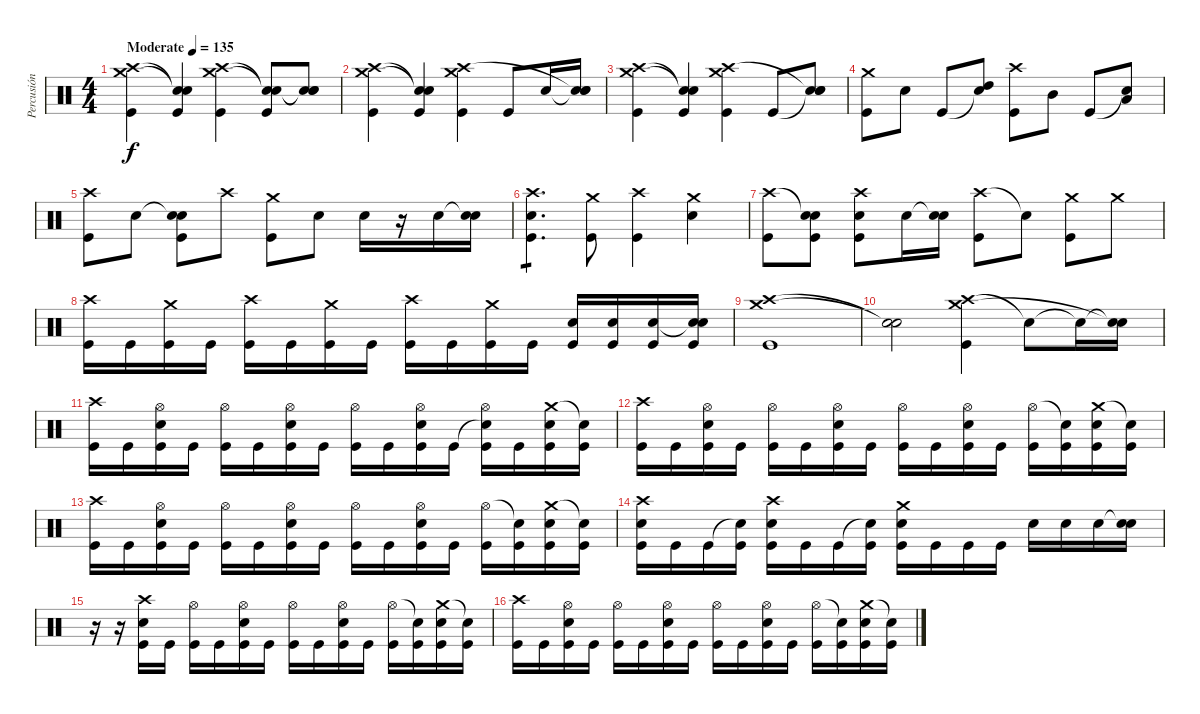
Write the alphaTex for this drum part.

\track ("Percusión" "Percusión") {instrument percussion}
\staff {score}
\articulation defaults
\ts (4 4)
\tempo (135 "Moderate")
\clef neutral
\ks c
("Crash high (hit)" "Crash medium (hit)" "Kick (hit)").4{dy f} ("Snare (hit)"{t} "Snare (hit)"{t} "Kick (hit)").4 ("Crash medium (hit)" "Crash high (hit)" "Kick (hit)").4 ("Snare (hit)"{t} "Snare (hit)"{t} "Kick (hit)").8 ("Snare (hit)"{t} "Snare (hit)"{t} "Snare (hit) 2").8 |
("Crash high (hit)" "Crash medium (hit)" "Kick (hit)").4 ("Snare (hit)"{t} "Snare (hit)"{t} "Kick (hit)").4 ("Crash medium (hit)" "Crash high (hit)" "Kick (hit)").4 "Kick (hit)".8 "Snare (hit) 2".16 ("Snare (hit)"{t} "Snare (hit)"{t} "Snare (hit) 2").16 |
("Crash high (hit)" "Crash medium (hit)" "Kick (hit)").4 ("Snare (hit)"{t} "Snare (hit)"{t} "Kick (hit)").4 ("Crash medium (hit)" "Crash high (hit)" "Kick (hit)").4 "Kick (hit)".8 ("Snare (hit)"{t} "Snare (hit)"{t} "Snare (hit) 2").8 |
("Crash medium (hit)" "Kick (hit)").8 "Snare (hit) 2".8 "Kick (hit)".8 ("Snare (hit)"{t} "High Tom (hit)").8 ("Crash high (hit)" "Kick (hit)").8 "Mid Tom (hit)".8 "Kick (hit)".8 ("Snare (hit)"{t} "Low Tom (hit)").8 |
("Crash high (hit)" "Kick (hit)").8 "Snare (hit) 2".8 ("Snare (hit)"{t} "Snare (hit) 2" "Kick (hit)").8 "Crash high (hit)".8 ("Crash medium (hit)" "Kick (hit)").8 "Snare (hit) 2".8 "Snare (hit) 2".16 r.16 "Snare (hit) 2".16 ("Snare (hit)"{t} "Snare (hit) 2").16 |
("Crash high (hit)" "Snare (hit) 2" "Kick (hit)").4{d tp 1} ("Crash medium (hit)" "Kick (hit)").8 ("Crash high (hit)" "Kick (hit)").4 ("Crash medium (hit)" "Snare (hit) 2").4 |
("Crash high (hit)" "Kick (hit)").8 ("Snare (hit)"{t} "Snare (hit) 2" "Kick (hit)").8 ("Crash high (hit)" "Snare (hit) 2" "Kick (hit)").8 "Snare (hit) 2".16 ("Snare (hit)"{t} "Snare (hit) 2").16 ("Crash high (hit)" "Kick (hit)").8 "Snare (hit)"{t}.8 ("Crash medium (hit)" "Kick (hit)").8 "Crash medium (hit)".8 |
("Crash high (hit)" "Kick (hit)").16 "Kick (hit)".16 ("Crash medium (hit)" "Kick (hit)").16 "Kick (hit)".16 ("Crash high (hit)" "Kick (hit)").16 "Kick (hit)".16 ("Crash medium (hit)" "Kick (hit)").16 "Kick (hit)".16 ("Crash high (hit)" "Kick (hit)").16 "Kick (hit)".16 ("Crash medium (hit)" "Kick (hit)").16 "Kick (hit)".16 ("Snare (hit) 2" "Kick (hit)").16 ("Snare (hit) 2" "Kick (hit)").16 ("Snare (hit) 2" "Kick (hit)").16 ("Snare (hit)"{t} "Snare (hit) 2" "Kick (hit)").16 |
("Crash high (hit)" "Crash medium (hit)" "Kick (hit)").1 |
("Snare (hit)"{t} "Snare (hit)"{t}).2 ("Crash high (hit)" "Crash medium (hit)" "Kick (hit)").4 "Snare (hit)"{t}.8 "Snare (hit)"{t}.16 ("Snare (hit)"{t} "Snare (hit)"{t}).16 |
("Crash high (hit)" "Kick (hit)").16 "Kick (hit)".16 ("Hi-Hat (open)" "Snare (hit) 2" "Kick (hit)").16 "Kick (hit)".16 ("Hi-Hat (open)" "Kick (hit)").16 "Kick (hit)".16 ("Hi-Hat (open)" "Snare (hit) 2" "Kick (hit)").16 "Kick (hit)".16 ("Hi-Hat (open)" "Kick (hit)").16 "Kick (hit)".16 ("Hi-Hat (open)" "Snare (hit) 2" "Kick (hit)").16 "Kick (hit)".16 ("Snare (hit)"{t} "Hi-Hat (open)" "Kick (hit)").16 "Kick (hit)".16 ("Crash medium (hit)" "Snare (hit) 2" "Kick (hit)").16 ("Snare (hit)"{t} "Kick (hit)").16 |
("Crash high (hit)" "Kick (hit)").16 "Kick (hit)".16 ("Hi-Hat (open)" "Snare (hit) 2" "Kick (hit)").16 "Kick (hit)".16 ("Hi-Hat (open)" "Kick (hit)").16 "Kick (hit)".16 ("Hi-Hat (open)" "Snare (hit) 2" "Kick (hit)").16 "Kick (hit)".16 ("Hi-Hat (open)" "Kick (hit)").16 "Kick (hit)".16 ("Hi-Hat (open)" "Snare (hit) 2" "Kick (hit)").16 "Kick (hit)".16 ("Hi-Hat (open)" "Kick (hit)").16 ("Snare (hit)"{t} "Kick (hit)").16 ("Crash medium (hit)" "Snare (hit) 2" "Kick (hit)").16 ("Snare (hit)"{t} "Kick (hit)").16 |
("Crash high (hit)" "Kick (hit)").16 "Kick (hit)".16 ("Hi-Hat (open)" "Snare (hit) 2" "Kick (hit)").16 "Kick (hit)".16 ("Hi-Hat (open)" "Kick (hit)").16 "Kick (hit)".16 ("Hi-Hat (open)" "Snare (hit) 2" "Kick (hit)").16 "Kick (hit)".16 ("Hi-Hat (open)" "Kick (hit)").16 "Kick (hit)".16 ("Hi-Hat (open)" "Snare (hit) 2" "Kick (hit)").16 "Kick (hit)".16 ("Hi-Hat (open)" "Kick (hit)").16 ("Snare (hit)"{t} "Kick (hit)").16 ("Crash medium (hit)" "Snare (hit) 2" "Kick (hit)").16 ("Snare (hit)"{t} "Kick (hit)").16 |
("Crash high (hit)" "Snare (hit) 2" "Kick (hit)").16 "Kick (hit)".16 "Kick (hit)".16 ("Snare (hit)"{t} "Kick (hit)").16 ("Crash high (hit)" "Snare (hit) 2" "Kick (hit)").16 "Kick (hit)".16 "Kick (hit)".16 ("Snare (hit)"{t} "Kick (hit)").16 ("Crash medium (hit)" "Snare (hit) 2" "Kick (hit)").16 "Kick (hit)".16 "Kick (hit)".16 "Kick (hit)".16 "Snare (hit) 2".16 "Snare (hit) 2".16 "Snare (hit) 2".16 ("Snare (hit)"{t} "Snare (hit) 2").16 |
r.16 r.16 ("Crash high (hit)" "Snare (hit) 2" "Kick (hit)").16 "Kick (hit)".16 ("Hi-Hat (open)" "Kick (hit)").16 "Kick (hit)".16 ("Hi-Hat (open)" "Snare (hit) 2" "Kick (hit)").16 "Kick (hit)".16 ("Hi-Hat (open)" "Kick (hit)").16 "Kick (hit)".16 ("Hi-Hat (open)" "Snare (hit) 2" "Kick (hit)").16 "Kick (hit)".16 ("Hi-Hat (open)" "Kick (hit)").16 ("Snare (hit)"{t} "Kick (hit)").16 ("Crash medium (hit)" "Snare (hit) 2" "Kick (hit)").16 ("Snare (hit)"{t} "Kick (hit)").16 |
("Crash high (hit)" "Kick (hit)").16 "Kick (hit)".16 ("Hi-Hat (open)" "Snare (hit) 2" "Kick (hit)").16 "Kick (hit)".16 ("Hi-Hat (open)" "Kick (hit)").16 "Kick (hit)".16 ("Hi-Hat (open)" "Snare (hit) 2" "Kick (hit)").16 "Kick (hit)".16 ("Hi-Hat (open)" "Kick (hit)").16 "Kick (hit)".16 ("Hi-Hat (open)" "Snare (hit) 2" "Kick (hit)").16 "Kick (hit)".16 ("Hi-Hat (open)" "Kick (hit)").16 ("Snare (hit)"{t} "Kick (hit)").16 ("Crash medium (hit)" "Snare (hit) 2" "Kick (hit)").16 ("Snare (hit)"{t} "Kick (hit)").16
